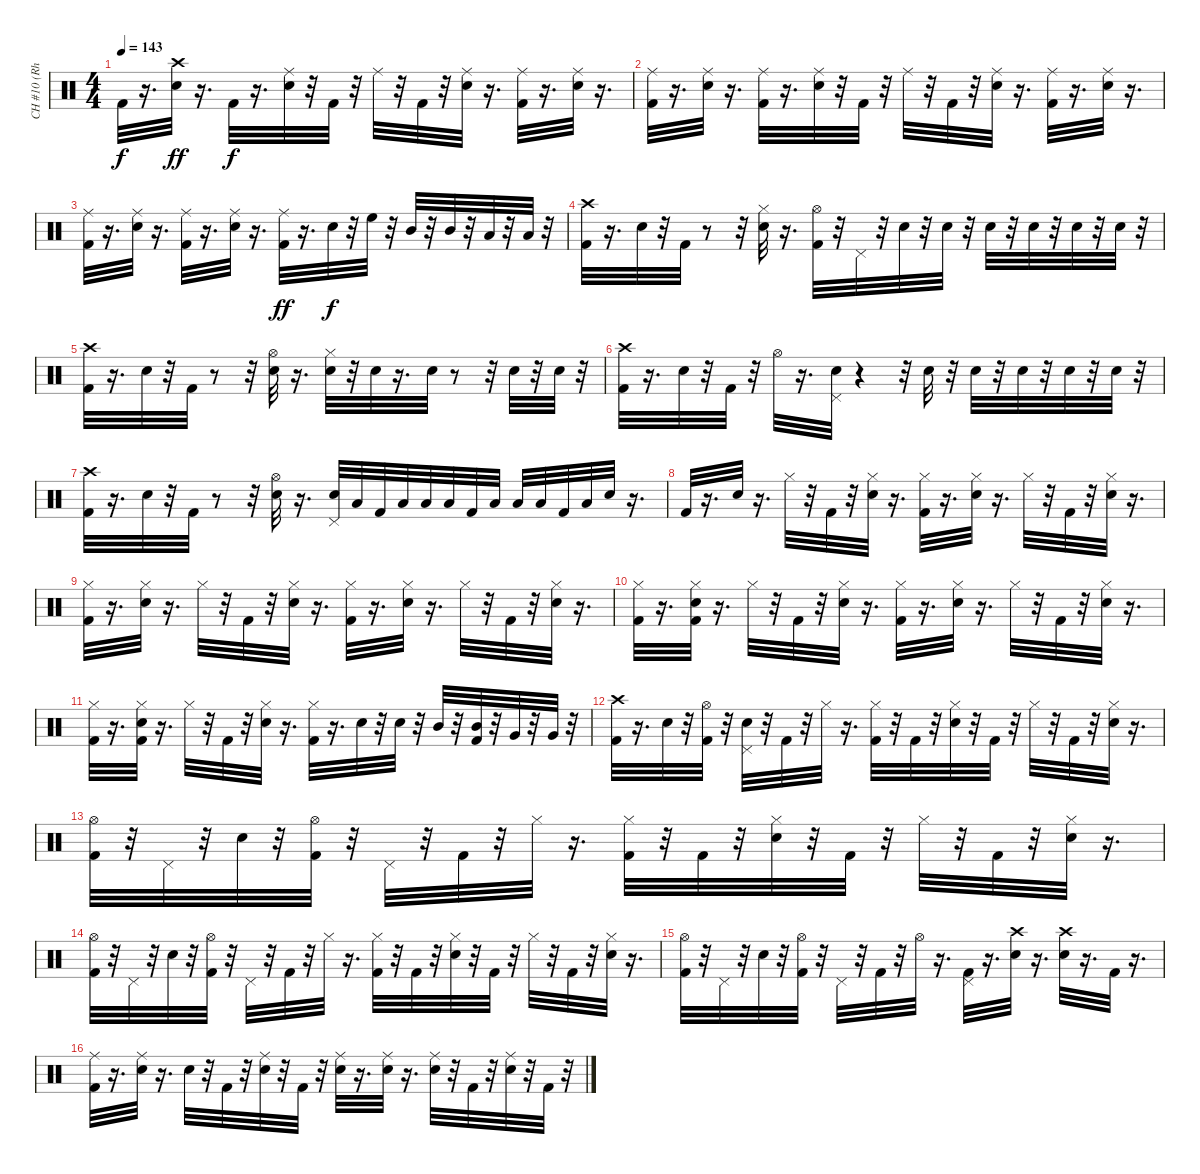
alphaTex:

\track ("CH #10 (Rhythm channel)" "CH #10 (Rh") {instrument percussion}
\staff {score}
\articulation defaults
\ts (4 4)
\tempo 143
\clef neutral
\ks c "Kick (hit) 2".32{dy f}
r.16{d} ("Electric Snare (hit)" "Crash high (hit)").32{dy ff} r.16{d} "Kick (hit) 2".32{dy f} r.16{d} ("Electric Snare (hit)" "Ride (middle)").32 r.32 "Kick (hit) 2".32 r.32 "Ride (middle)".32 r.32 "Kick (hit) 2".32 r.32 ("Electric Snare (hit)" "Ride (middle)").32 r.16{d} ("Ride (middle)" "Kick (hit) 2").32 r.16{d} ("Electric Snare (hit)" "Ride (middle)").32 r.16{d} |
("Kick (hit) 2" "Ride (middle)").32 r.16{d} ("Electric Snare (hit)" "Ride (middle)").32 r.16{d} ("Kick (hit) 2" "Ride (middle)").32 r.16{d} ("Electric Snare (hit)" "Ride (middle)").32 r.32 "Kick (hit) 2".32 r.32 "Ride (middle)".32 r.32 "Kick (hit) 2".32 r.32 ("Electric Snare (hit)" "Ride (middle)").32 r.16{d} ("Kick (hit) 2" "Ride (middle)").32 r.16{d} ("Electric Snare (hit)" "Ride (middle)").32 r.16{d} |
("Kick (hit) 2" "Ride (middle)").32 r.16{d} ("Electric Snare (hit)" "Ride (middle)").32 r.16{d} ("Kick (hit) 2" "Ride (middle)").32 r.16{d} ("Electric Snare (hit)" "Ride (middle)").32 r.16{d} ("Ride (middle)" "Kick (hit) 2").32{dy ff} r.16{d} "Electric Snare (hit)".32{dy f} r.32 "High Floor Tom (hit)".32 r.32 "Mid Tom (hit)".32 r.32 "Mid Tom (hit)".32 r.32 "Low Tom (hit)".32 r.32 "Low Tom (hit)".32 r.32 |
("Kick (hit) 2" "Crash high (hit)").32 r.16{d} "Electric Snare (hit)".32 r.32 "Kick (hit) 2".32 r.8 r.32 ("Electric Snare (hit)" "Hi-Hat (closed)").32 r.16{d} ("Hi-Hat (open)" "Kick (hit) 2").32 r.32 "Pedal Hi-Hat (hit)".32 r.32 "Electric Snare (hit)".32 r.32 "Electric Snare (hit)".32 r.32 "Electric Snare (hit)".32 r.32 "Electric Snare (hit)".32 r.32 "Electric Snare (hit)".32 r.32 "Electric Snare (hit)".32 r.32 |
("Kick (hit) 2" "Crash high (hit)").32 r.16{d} "Electric Snare (hit)".32 r.32 "Kick (hit) 2".32 r.8 r.32 ("Electric Snare (hit)" "Hi-Hat (open)").32 r.16{d} ("Hi-Hat (closed)" "Electric Snare (hit)").32 r.32 "Electric Snare (hit)".32 r.16{d} "Electric Snare (hit)".32 r.8 r.32 "Electric Snare (hit)".32 r.32 "Electric Snare (hit)".32 r.32 |
("Kick (hit) 2" "Crash high (hit)").32 r.16{d} "Electric Snare (hit)".32 r.32 "Kick (hit) 2".32 r.32 "Hi-Hat (open)".32 r.16{d} ("Pedal Hi-Hat (hit)" "Electric Snare (hit)").32 r.4 r.32 "Electric Snare (hit)".32 r.32 "Electric Snare (hit)".32 r.32 "Electric Snare (hit)".32 r.32 "Electric Snare (hit)".32 r.32 "Electric Snare (hit)".32 r.32 |
("Kick (hit) 2" "Crash high (hit)").32 r.16{d} "Electric Snare (hit)".32 r.32 "Kick (hit) 2".32 r.8 r.32 ("Electric Snare (hit)" "Hi-Hat (open)").32 r.16{d} ("Electric Snare (hit)" "Pedal Hi-Hat (hit)").32 "Low Floor Tom (hit)".32 "Kick (hit) 2".32 "Low Floor Tom (hit)".32 "Low Floor Tom (hit)".32 "Low Floor Tom (hit)".32 "Kick (hit) 2".32 "Low Floor Tom (hit)".32 "Low Floor Tom (hit)".32 "Low Floor Tom (hit)".32 "Kick (hit) 2".32 "Low Floor Tom (hit)".32 "Electric Snare (hit)".32 r.16{d} |
"Kick (hit) 2".32 r.16{d} "Electric Snare (hit)".32 r.16{d} "Hi-Hat (closed)".32 r.32 "Kick (hit) 2".32 r.32 ("Electric Snare (hit)" "Hi-Hat (closed)").32 r.16{d} ("Kick (hit) 2" "Hi-Hat (closed)").32 r.16{d} ("Electric Snare (hit)" "Hi-Hat (closed)").32 r.16{d} "Hi-Hat (closed)".32 r.32 "Kick (hit) 2".32 r.32 ("Electric Snare (hit)" "Hi-Hat (closed)").32 r.16{d} |
("Kick (hit) 2" "Hi-Hat (closed)").32 r.16{d} ("Electric Snare (hit)" "Hi-Hat (closed)").32 r.16{d} "Hi-Hat (closed)".32 r.32 "Kick (hit) 2".32 r.32 ("Electric Snare (hit)" "Hi-Hat (closed)").32 r.16{d} ("Kick (hit) 2" "Hi-Hat (closed)").32 r.16{d} ("Electric Snare (hit)" "Hi-Hat (closed)").32 r.16{d} "Hi-Hat (closed)".32 r.32 "Kick (hit) 2".32 r.32 ("Electric Snare (hit)" "Hi-Hat (closed)").32 r.16{d} |
("Kick (hit) 2" "Hi-Hat (closed)").32 r.16{d} ("Kick (hit) 2" "Electric Snare (hit)" "Hi-Hat (closed)").32 r.16{d} "Hi-Hat (closed)".32 r.32 "Kick (hit) 2".32 r.32 ("Electric Snare (hit)" "Hi-Hat (closed)").32 r.16{d} ("Kick (hit) 2" "Hi-Hat (closed)").32 r.16{d} ("Electric Snare (hit)" "Hi-Hat (closed)").32 r.16{d} "Hi-Hat (closed)".32 r.32 "Kick (hit) 2".32 r.32 ("Electric Snare (hit)" "Hi-Hat (closed)").32 r.16{d} |
("Kick (hit) 2" "Hi-Hat (closed)").32 r.16{d} ("Kick (hit) 2" "Electric Snare (hit)" "Hi-Hat (closed)").32 r.16{d} "Hi-Hat (closed)".32 r.32 "Kick (hit) 2".32 r.32 ("Electric Snare (hit)" "Hi-Hat (closed)").32 r.16{d} ("Kick (hit) 2" "Hi-Hat (closed)").32 r.16{d} "Electric Snare (hit)".32 r.32 "Electric Snare (hit)".32 r.32 "Mid Tom (hit)".32 r.32 ("Kick (hit) 2" "Mid Tom (hit)").32 r.32 "Very Low Tom (hit)".32 r.32 "Very Low Tom (hit)".32 r.32 |
("Kick (hit) 2" "Crash high (hit)").32 r.16{d} "Electric Snare (hit)".32 r.32 ("Kick (hit) 2" "Hi-Hat (open)").32 r.32 ("Electric Snare (hit)" "Pedal Hi-Hat (hit)").32 r.32 "Kick (hit) 2".32 r.32 "Hi-Hat (closed)".32 r.16{d} ("Kick (hit) 2" "Hi-Hat (closed)").32 r.32 "Kick (hit) 2".32 r.32 ("Electric Snare (hit)" "Hi-Hat (closed)").32 r.32 "Kick (hit) 2".32 r.32 "Hi-Hat (closed)".32 r.32 "Kick (hit) 2".32 r.32 ("Electric Snare (hit)" "Hi-Hat (closed)").32 r.16{d} |
("Hi-Hat (open)" "Kick (hit) 2").32 r.32 "Pedal Hi-Hat (hit)".32 r.32 "Electric Snare (hit)".32 r.32 ("Hi-Hat (open)" "Kick (hit) 2").32 r.32 "Pedal Hi-Hat (hit)".32 r.32 "Kick (hit) 2".32 r.32 "Hi-Hat (closed)".32 r.16{d} ("Hi-Hat (closed)" "Kick (hit) 2").32 r.32 "Kick (hit) 2".32 r.32 ("Hi-Hat (closed)" "Electric Snare (hit)").32 r.32 "Kick (hit) 2".32 r.32 "Hi-Hat (closed)".32 r.32 "Kick (hit) 2".32 r.32 ("Hi-Hat (closed)" "Electric Snare (hit)").32 r.16{d} |
("Hi-Hat (open)" "Kick (hit) 2").32 r.32 "Pedal Hi-Hat (hit)".32 r.32 "Electric Snare (hit)".32 r.32 ("Hi-Hat (open)" "Kick (hit) 2").32 r.32 "Pedal Hi-Hat (hit)".32 r.32 "Kick (hit) 2".32 r.32 "Hi-Hat (closed)".32 r.16{d} ("Hi-Hat (closed)" "Kick (hit) 2").32 r.32 "Kick (hit) 2".32 r.32 ("Hi-Hat (closed)" "Electric Snare (hit)").32 r.32 "Kick (hit) 2".32 r.32 "Hi-Hat (closed)".32 r.32 "Kick (hit) 2".32 r.32 ("Hi-Hat (closed)" "Electric Snare (hit)").32 r.16{d} |
("Hi-Hat (open)" "Kick (hit) 2").32 r.32 "Pedal Hi-Hat (hit)".32 r.32 "Electric Snare (hit)".32 r.32 ("Hi-Hat (open)" "Kick (hit) 2").32 r.32 "Pedal Hi-Hat (hit)".32 r.32 "Kick (hit) 2".32 r.32 "Hi-Hat (open)".32 r.16{d} ("Kick (hit) 2" "Pedal Hi-Hat (hit)").32 r.16{d} ("Electric Snare (hit)" "Crash high (hit)").32 r.16{d} ("Electric Snare (hit)" "Crash high (hit)").32 r.16{d} "Kick (hit) 2".32 r.16{d} |
("Kick (hit) 2" "Ride (middle)").32 r.16{d} ("Electric Snare (hit)" "Ride (middle)").32 r.16{d} "Electric Snare (hit)".32 r.32 "Kick (hit) 2".32 r.32 ("Electric Snare (hit)" "Ride (middle)").32 r.32 "Kick (hit) 2".32 r.32 ("Electric Snare (hit)" "Ride (middle)").32 r.16{d} ("Electric Snare (hit)" "Ride (middle)").32 r.16{d} ("Electric Snare (hit)" "Ride (middle)").32 r.32 "Kick (hit) 2".32 r.32 ("Electric Snare (hit)" "Ride (middle)").32 r.32 "Kick (hit) 2".32 r.32
